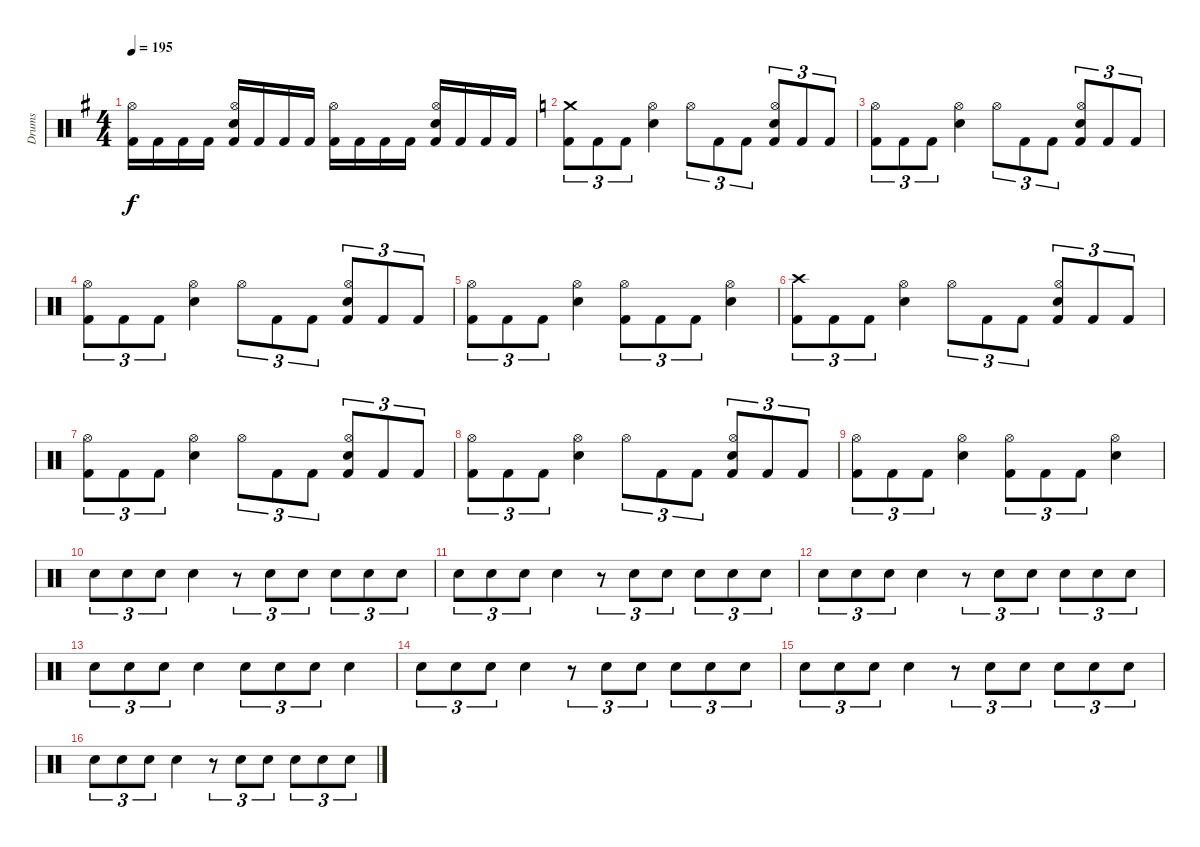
\track ("Drums" "Drums") {instrument percussion}
\staff {score}
\articulation defaults
\ts (4 4)
\tempo 195
\clef neutral
\ks eminor
("Kick (hit) 2" "Hi-Hat (open)").16{dy f} "Kick (hit) 2".16 "Kick (hit) 2".16 "Kick (hit) 2".16 ("Kick (hit) 2" "Electric Snare (hit)" "Hi-Hat (open)").16 "Kick (hit) 2".16 "Kick (hit) 2".16 "Kick (hit) 2".16 ("Kick (hit) 2" "Hi-Hat (open)").16 "Kick (hit) 2".16 "Kick (hit) 2".16 "Kick (hit) 2".16 ("Kick (hit) 2" "Electric Snare (hit)" "Hi-Hat (open)").16 "Kick (hit) 2".16 "Kick (hit) 2".16 "Kick (hit) 2".16 |
\section ("" "")
\ks aminor
("Kick (hit) 2" "Crash medium (hit)").8{tu (3 2)} "Kick (hit) 2".8{tu (3 2)} "Kick (hit) 2".8{tu (3 2)} ("Electric Snare (hit)" "Hi-Hat (open)").4 "Hi-Hat (open)".8{tu (3 2)} "Kick (hit) 2".8{tu (3 2)} "Kick (hit) 2".8{tu (3 2)} ("Kick (hit) 2" "Electric Snare (hit)" "Hi-Hat (open)").8{tu (3 2)} "Kick (hit) 2".8{tu (3 2)} "Kick (hit) 2".8{tu (3 2)} |
("Kick (hit) 2" "Hi-Hat (open)").8{tu (3 2)} "Kick (hit) 2".8{tu (3 2)} "Kick (hit) 2".8{tu (3 2)} ("Electric Snare (hit)" "Hi-Hat (open)").4 "Hi-Hat (open)".8{tu (3 2)} "Kick (hit) 2".8{tu (3 2)} "Kick (hit) 2".8{tu (3 2)} ("Kick (hit) 2" "Electric Snare (hit)" "Hi-Hat (open)").8{tu (3 2)} "Kick (hit) 2".8{tu (3 2)} "Kick (hit) 2".8{tu (3 2)} |
("Kick (hit) 2" "Hi-Hat (open)").8{tu (3 2)} "Kick (hit) 2".8{tu (3 2)} "Kick (hit) 2".8{tu (3 2)} ("Electric Snare (hit)" "Hi-Hat (open)").4 "Hi-Hat (open)".8{tu (3 2)} "Kick (hit) 2".8{tu (3 2)} "Kick (hit) 2".8{tu (3 2)} ("Kick (hit) 2" "Electric Snare (hit)" "Hi-Hat (open)").8{tu (3 2)} "Kick (hit) 2".8{tu (3 2)} "Kick (hit) 2".8{tu (3 2)} |
("Kick (hit) 2" "Hi-Hat (open)").8{tu (3 2)} "Kick (hit) 2".8{tu (3 2)} "Kick (hit) 2".8{tu (3 2)} ("Electric Snare (hit)" "Hi-Hat (open)").4 ("Kick (hit) 2" "Hi-Hat (open)").8{tu (3 2)} "Kick (hit) 2".8{tu (3 2)} "Kick (hit) 2".8{tu (3 2)} ("Electric Snare (hit)" "Hi-Hat (open)").4 |
("Kick (hit) 2" "Crash high (hit)").8{tu (3 2)} "Kick (hit) 2".8{tu (3 2)} "Kick (hit) 2".8{tu (3 2)} ("Electric Snare (hit)" "Hi-Hat (open)").4 "Hi-Hat (open)".8{tu (3 2)} "Kick (hit) 2".8{tu (3 2)} "Kick (hit) 2".8{tu (3 2)} ("Kick (hit) 2" "Electric Snare (hit)" "Hi-Hat (open)").8{tu (3 2)} "Kick (hit) 2".8{tu (3 2)} "Kick (hit) 2".8{tu (3 2)} |
("Kick (hit) 2" "Hi-Hat (open)").8{tu (3 2)} "Kick (hit) 2".8{tu (3 2)} "Kick (hit) 2".8{tu (3 2)} ("Electric Snare (hit)" "Hi-Hat (open)").4 "Hi-Hat (open)".8{tu (3 2)} "Kick (hit) 2".8{tu (3 2)} "Kick (hit) 2".8{tu (3 2)} ("Kick (hit) 2" "Electric Snare (hit)" "Hi-Hat (open)").8{tu (3 2)} "Kick (hit) 2".8{tu (3 2)} "Kick (hit) 2".8{tu (3 2)} |
("Kick (hit) 2" "Hi-Hat (open)").8{tu (3 2)} "Kick (hit) 2".8{tu (3 2)} "Kick (hit) 2".8{tu (3 2)} ("Electric Snare (hit)" "Hi-Hat (open)").4 "Hi-Hat (open)".8{tu (3 2)} "Kick (hit) 2".8{tu (3 2)} "Kick (hit) 2".8{tu (3 2)} ("Kick (hit) 2" "Electric Snare (hit)" "Hi-Hat (open)").8{tu (3 2)} "Kick (hit) 2".8{tu (3 2)} "Kick (hit) 2".8{tu (3 2)} |
("Kick (hit) 2" "Hi-Hat (open)").8{tu (3 2)} "Kick (hit) 2".8{tu (3 2)} "Kick (hit) 2".8{tu (3 2)} ("Electric Snare (hit)" "Hi-Hat (open)").4 ("Kick (hit) 2" "Hi-Hat (open)").8{tu (3 2)} "Kick (hit) 2".8{tu (3 2)} "Kick (hit) 2".8{tu (3 2)} ("Electric Snare (hit)" "Hi-Hat (open)").4 |
\section ("" "")
"Electric Snare (hit)".8{tu (3 2)} "Electric Snare (hit)".8{tu (3 2)} "Electric Snare (hit)".8{tu (3 2)} "Electric Snare (hit)".4 r.8{tu (3 2)} "Electric Snare (hit)".8{tu (3 2)} "Electric Snare (hit)".8{tu (3 2)} "Electric Snare (hit)".8{tu (3 2)} "Electric Snare (hit)".8{tu (3 2)} "Electric Snare (hit)".8{tu (3 2)} |
"Electric Snare (hit)".8{tu (3 2)} "Electric Snare (hit)".8{tu (3 2)} "Electric Snare (hit)".8{tu (3 2)} "Electric Snare (hit)".4 r.8{tu (3 2)} "Electric Snare (hit)".8{tu (3 2)} "Electric Snare (hit)".8{tu (3 2)} "Electric Snare (hit)".8{tu (3 2)} "Electric Snare (hit)".8{tu (3 2)} "Electric Snare (hit)".8{tu (3 2)} |
"Electric Snare (hit)".8{tu (3 2)} "Electric Snare (hit)".8{tu (3 2)} "Electric Snare (hit)".8{tu (3 2)} "Electric Snare (hit)".4 r.8{tu (3 2)} "Electric Snare (hit)".8{tu (3 2)} "Electric Snare (hit)".8{tu (3 2)} "Electric Snare (hit)".8{tu (3 2)} "Electric Snare (hit)".8{tu (3 2)} "Electric Snare (hit)".8{tu (3 2)} |
"Electric Snare (hit)".8{tu (3 2)} "Electric Snare (hit)".8{tu (3 2)} "Electric Snare (hit)".8{tu (3 2)} "Electric Snare (hit)".4 "Electric Snare (hit)".8{tu (3 2)} "Electric Snare (hit)".8{tu (3 2)} "Electric Snare (hit)".8{tu (3 2)} "Electric Snare (hit)".4 |
"Electric Snare (hit)".8{tu (3 2)} "Electric Snare (hit)".8{tu (3 2)} "Electric Snare (hit)".8{tu (3 2)} "Electric Snare (hit)".4 r.8{tu (3 2)} "Electric Snare (hit)".8{tu (3 2)} "Electric Snare (hit)".8{tu (3 2)} "Electric Snare (hit)".8{tu (3 2)} "Electric Snare (hit)".8{tu (3 2)} "Electric Snare (hit)".8{tu (3 2)} |
"Electric Snare (hit)".8{tu (3 2)} "Electric Snare (hit)".8{tu (3 2)} "Electric Snare (hit)".8{tu (3 2)} "Electric Snare (hit)".4 r.8{tu (3 2)} "Electric Snare (hit)".8{tu (3 2)} "Electric Snare (hit)".8{tu (3 2)} "Electric Snare (hit)".8{tu (3 2)} "Electric Snare (hit)".8{tu (3 2)} "Electric Snare (hit)".8{tu (3 2)} |
"Electric Snare (hit)".8{tu (3 2)} "Electric Snare (hit)".8{tu (3 2)} "Electric Snare (hit)".8{tu (3 2)} "Electric Snare (hit)".4 r.8{tu (3 2)} "Electric Snare (hit)".8{tu (3 2)} "Electric Snare (hit)".8{tu (3 2)} "Electric Snare (hit)".8{tu (3 2)} "Electric Snare (hit)".8{tu (3 2)} "Electric Snare (hit)".8{tu (3 2)}
